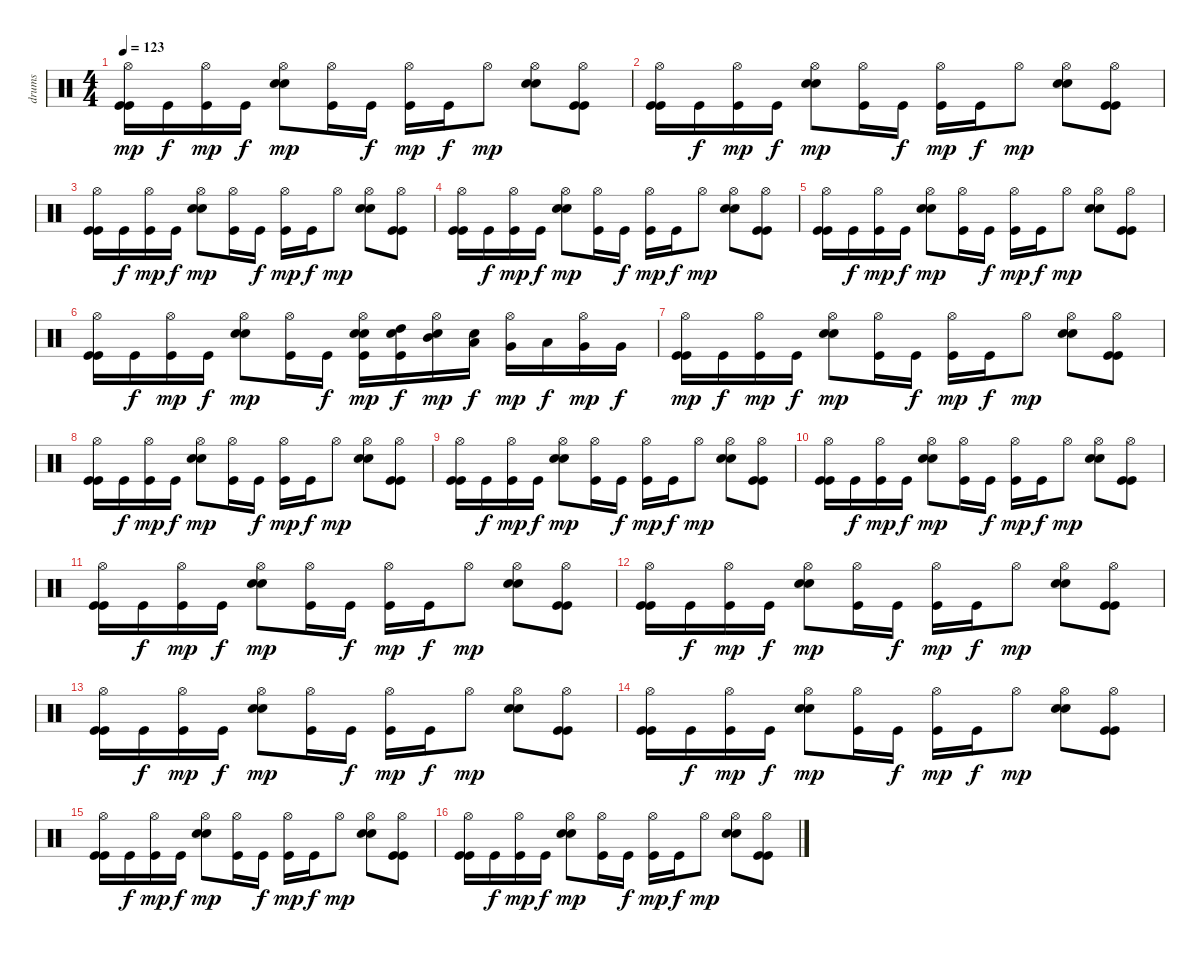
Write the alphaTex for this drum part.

\track ("drums" "drums") {instrument percussion}
\staff {score}
\articulation defaults
\ts (4 4)
\tempo 123
\clef neutral
\ks c
("Hi-Hat (open)" "Kick (hit)" "Kick (hit)").16{dy mp} "Kick (hit)".16{dy f} ("Hi-Hat (open)" "Kick (hit)").16{dy mp} "Kick (hit)".16{dy f} ("Hi-Hat (open)" "Snare (hit) 2" "Snare (hit) 2").8{dy mp} ("Hi-Hat (open)" "Kick (hit)").16 "Kick (hit)".16{dy f} ("Hi-Hat (open)" "Kick (hit)").16{dy mp} "Kick (hit)".16{dy f} "Hi-Hat (open)".8{dy mp} ("Hi-Hat (open)" "Snare (hit) 2" "Snare (hit) 2").8 ("Hi-Hat (open)" "Kick (hit)" "Kick (hit)").8 |
("Hi-Hat (open)" "Kick (hit)" "Kick (hit)").16 "Kick (hit)".16{dy f} ("Hi-Hat (open)" "Kick (hit)").16{dy mp} "Kick (hit)".16{dy f} ("Hi-Hat (open)" "Snare (hit) 2" "Snare (hit) 2").8{dy mp} ("Hi-Hat (open)" "Kick (hit)").16 "Kick (hit)".16{dy f} ("Hi-Hat (open)" "Kick (hit)").16{dy mp} "Kick (hit)".16{dy f} "Hi-Hat (open)".8{dy mp} ("Hi-Hat (open)" "Snare (hit) 2" "Snare (hit) 2").8 ("Hi-Hat (open)" "Kick (hit)" "Kick (hit)").8 |
("Hi-Hat (open)" "Kick (hit)" "Kick (hit)").16 "Kick (hit)".16{dy f} ("Hi-Hat (open)" "Kick (hit)").16{dy mp} "Kick (hit)".16{dy f} ("Hi-Hat (open)" "Snare (hit) 2" "Snare (hit) 2").8{dy mp} ("Hi-Hat (open)" "Kick (hit)").16 "Kick (hit)".16{dy f} ("Hi-Hat (open)" "Kick (hit)").16{dy mp} "Kick (hit)".16{dy f} "Hi-Hat (open)".8{dy mp} ("Hi-Hat (open)" "Snare (hit) 2" "Snare (hit) 2").8 ("Hi-Hat (open)" "Kick (hit)" "Kick (hit)").8 |
("Hi-Hat (open)" "Kick (hit)" "Kick (hit)").16 "Kick (hit)".16{dy f} ("Hi-Hat (open)" "Kick (hit)").16{dy mp} "Kick (hit)".16{dy f} ("Hi-Hat (open)" "Snare (hit) 2" "Snare (hit) 2").8{dy mp} ("Hi-Hat (open)" "Kick (hit)").16 "Kick (hit)".16{dy f} ("Hi-Hat (open)" "Kick (hit)").16{dy mp} "Kick (hit)".16{dy f} "Hi-Hat (open)".8{dy mp} ("Hi-Hat (open)" "Snare (hit) 2" "Snare (hit) 2").8 ("Hi-Hat (open)" "Kick (hit)" "Kick (hit)").8 |
("Hi-Hat (open)" "Kick (hit)" "Kick (hit)").16 "Kick (hit)".16{dy f} ("Hi-Hat (open)" "Kick (hit)").16{dy mp} "Kick (hit)".16{dy f} ("Hi-Hat (open)" "Snare (hit) 2" "Snare (hit) 2").8{dy mp} ("Hi-Hat (open)" "Kick (hit)").16 "Kick (hit)".16{dy f} ("Hi-Hat (open)" "Kick (hit)").16{dy mp} "Kick (hit)".16{dy f} "Hi-Hat (open)".8{dy mp} ("Hi-Hat (open)" "Snare (hit) 2" "Snare (hit) 2").8 ("Hi-Hat (open)" "Kick (hit)" "Kick (hit)").8 |
("Hi-Hat (open)" "Kick (hit)" "Kick (hit)").16 "Kick (hit)".16{dy f} ("Hi-Hat (open)" "Kick (hit)").16{dy mp} "Kick (hit)".16{dy f} ("Hi-Hat (open)" "Snare (hit) 2" "Snare (hit) 2").8{dy mp} ("Hi-Hat (open)" "Kick (hit)").16 "Kick (hit)".16{dy f} ("Hi-Hat (open)" "Snare (hit) 2" "Snare (hit) 2" "Kick (hit)").16{dy mp} ("Electric Snare (hit)" "High Tom (hit)" "Kick (hit)").16{dy f} ("Hi-Hat (open)" "Electric Snare (hit)" "Mid Tom (hit)").16{dy mp} ("Electric Snare (hit)" "Low Tom (hit)").16{dy f} ("Hi-Hat (open)" "Very Low Tom (hit)").16{dy mp} "Low Floor Tom (hit)".16{dy f} ("Hi-Hat (open)" "Very Low Tom (hit)").16{dy mp} "Very Low Tom (hit)".16{dy f} |
("Hi-Hat (open)" "Kick (hit)" "Kick (hit)").16{dy mp} "Kick (hit)".16{dy f} ("Hi-Hat (open)" "Kick (hit)").16{dy mp} "Kick (hit)".16{dy f} ("Hi-Hat (open)" "Snare (hit) 2" "Snare (hit) 2").8{dy mp} ("Hi-Hat (open)" "Kick (hit)").16 "Kick (hit)".16{dy f} ("Hi-Hat (open)" "Kick (hit)").16{dy mp} "Kick (hit)".16{dy f} "Hi-Hat (open)".8{dy mp} ("Hi-Hat (open)" "Snare (hit) 2" "Snare (hit) 2").8 ("Hi-Hat (open)" "Kick (hit)" "Kick (hit)").8 |
("Hi-Hat (open)" "Kick (hit)" "Kick (hit)").16 "Kick (hit)".16{dy f} ("Hi-Hat (open)" "Kick (hit)").16{dy mp} "Kick (hit)".16{dy f} ("Hi-Hat (open)" "Snare (hit) 2" "Snare (hit) 2").8{dy mp} ("Hi-Hat (open)" "Kick (hit)").16 "Kick (hit)".16{dy f} ("Hi-Hat (open)" "Kick (hit)").16{dy mp} "Kick (hit)".16{dy f} "Hi-Hat (open)".8{dy mp} ("Hi-Hat (open)" "Snare (hit) 2" "Snare (hit) 2").8 ("Hi-Hat (open)" "Kick (hit)" "Kick (hit)").8 |
("Hi-Hat (open)" "Kick (hit)" "Kick (hit)").16 "Kick (hit)".16{dy f} ("Hi-Hat (open)" "Kick (hit)").16{dy mp} "Kick (hit)".16{dy f} ("Hi-Hat (open)" "Snare (hit) 2" "Snare (hit) 2").8{dy mp} ("Hi-Hat (open)" "Kick (hit)").16 "Kick (hit)".16{dy f} ("Hi-Hat (open)" "Kick (hit)").16{dy mp} "Kick (hit)".16{dy f} "Hi-Hat (open)".8{dy mp} ("Hi-Hat (open)" "Snare (hit) 2" "Snare (hit) 2").8 ("Hi-Hat (open)" "Kick (hit)" "Kick (hit)").8 |
("Hi-Hat (open)" "Kick (hit)" "Kick (hit)").16 "Kick (hit)".16{dy f} ("Hi-Hat (open)" "Kick (hit)").16{dy mp} "Kick (hit)".16{dy f} ("Hi-Hat (open)" "Snare (hit) 2" "Snare (hit) 2").8{dy mp} ("Hi-Hat (open)" "Kick (hit)").16 "Kick (hit)".16{dy f} ("Hi-Hat (open)" "Kick (hit)").16{dy mp} "Kick (hit)".16{dy f} "Hi-Hat (open)".8{dy mp} ("Hi-Hat (open)" "Snare (hit) 2" "Snare (hit) 2").8 ("Hi-Hat (open)" "Kick (hit)" "Kick (hit)").8 |
("Hi-Hat (open)" "Kick (hit)" "Kick (hit)").16 "Kick (hit)".16{dy f} ("Hi-Hat (open)" "Kick (hit)").16{dy mp} "Kick (hit)".16{dy f} ("Hi-Hat (open)" "Snare (hit) 2" "Snare (hit) 2").8{dy mp} ("Hi-Hat (open)" "Kick (hit)").16 "Kick (hit)".16{dy f} ("Hi-Hat (open)" "Kick (hit)").16{dy mp} "Kick (hit)".16{dy f} "Hi-Hat (open)".8{dy mp} ("Hi-Hat (open)" "Snare (hit) 2" "Snare (hit) 2").8 ("Hi-Hat (open)" "Kick (hit)" "Kick (hit)").8 |
("Hi-Hat (open)" "Kick (hit)" "Kick (hit)").16 "Kick (hit)".16{dy f} ("Hi-Hat (open)" "Kick (hit)").16{dy mp} "Kick (hit)".16{dy f} ("Hi-Hat (open)" "Snare (hit) 2" "Snare (hit) 2").8{dy mp} ("Hi-Hat (open)" "Kick (hit)").16 "Kick (hit)".16{dy f} ("Hi-Hat (open)" "Kick (hit)").16{dy mp} "Kick (hit)".16{dy f} "Hi-Hat (open)".8{dy mp} ("Hi-Hat (open)" "Snare (hit) 2" "Snare (hit) 2").8 ("Hi-Hat (open)" "Kick (hit)" "Kick (hit)").8 |
("Hi-Hat (open)" "Kick (hit)" "Kick (hit)").16 "Kick (hit)".16{dy f} ("Hi-Hat (open)" "Kick (hit)").16{dy mp} "Kick (hit)".16{dy f} ("Hi-Hat (open)" "Snare (hit) 2" "Snare (hit) 2").8{dy mp} ("Hi-Hat (open)" "Kick (hit)").16 "Kick (hit)".16{dy f} ("Hi-Hat (open)" "Kick (hit)").16{dy mp} "Kick (hit)".16{dy f} "Hi-Hat (open)".8{dy mp} ("Hi-Hat (open)" "Snare (hit) 2" "Snare (hit) 2").8 ("Hi-Hat (open)" "Kick (hit)" "Kick (hit)").8 |
("Hi-Hat (open)" "Kick (hit)" "Kick (hit)").16 "Kick (hit)".16{dy f} ("Hi-Hat (open)" "Kick (hit)").16{dy mp} "Kick (hit)".16{dy f} ("Hi-Hat (open)" "Snare (hit) 2" "Snare (hit) 2").8{dy mp} ("Hi-Hat (open)" "Kick (hit)").16 "Kick (hit)".16{dy f} ("Hi-Hat (open)" "Kick (hit)").16{dy mp} "Kick (hit)".16{dy f} "Hi-Hat (open)".8{dy mp} ("Hi-Hat (open)" "Snare (hit) 2" "Snare (hit) 2").8 ("Hi-Hat (open)" "Kick (hit)" "Kick (hit)").8 |
("Hi-Hat (open)" "Kick (hit)" "Kick (hit)").16 "Kick (hit)".16{dy f} ("Hi-Hat (open)" "Kick (hit)").16{dy mp} "Kick (hit)".16{dy f} ("Hi-Hat (open)" "Snare (hit) 2" "Snare (hit) 2").8{dy mp} ("Hi-Hat (open)" "Kick (hit)").16 "Kick (hit)".16{dy f} ("Hi-Hat (open)" "Kick (hit)").16{dy mp} "Kick (hit)".16{dy f} "Hi-Hat (open)".8{dy mp} ("Hi-Hat (open)" "Snare (hit) 2" "Snare (hit) 2").8 ("Hi-Hat (open)" "Kick (hit)" "Kick (hit)").8 |
("Hi-Hat (open)" "Kick (hit)" "Kick (hit)").16 "Kick (hit)".16{dy f} ("Hi-Hat (open)" "Kick (hit)").16{dy mp} "Kick (hit)".16{dy f} ("Hi-Hat (open)" "Snare (hit) 2" "Snare (hit) 2").8{dy mp} ("Hi-Hat (open)" "Kick (hit)").16 "Kick (hit)".16{dy f} ("Hi-Hat (open)" "Kick (hit)").16{dy mp} "Kick (hit)".16{dy f} "Hi-Hat (open)".8{dy mp} ("Hi-Hat (open)" "Snare (hit) 2" "Snare (hit) 2").8 ("Hi-Hat (open)" "Kick (hit)" "Kick (hit)").8
